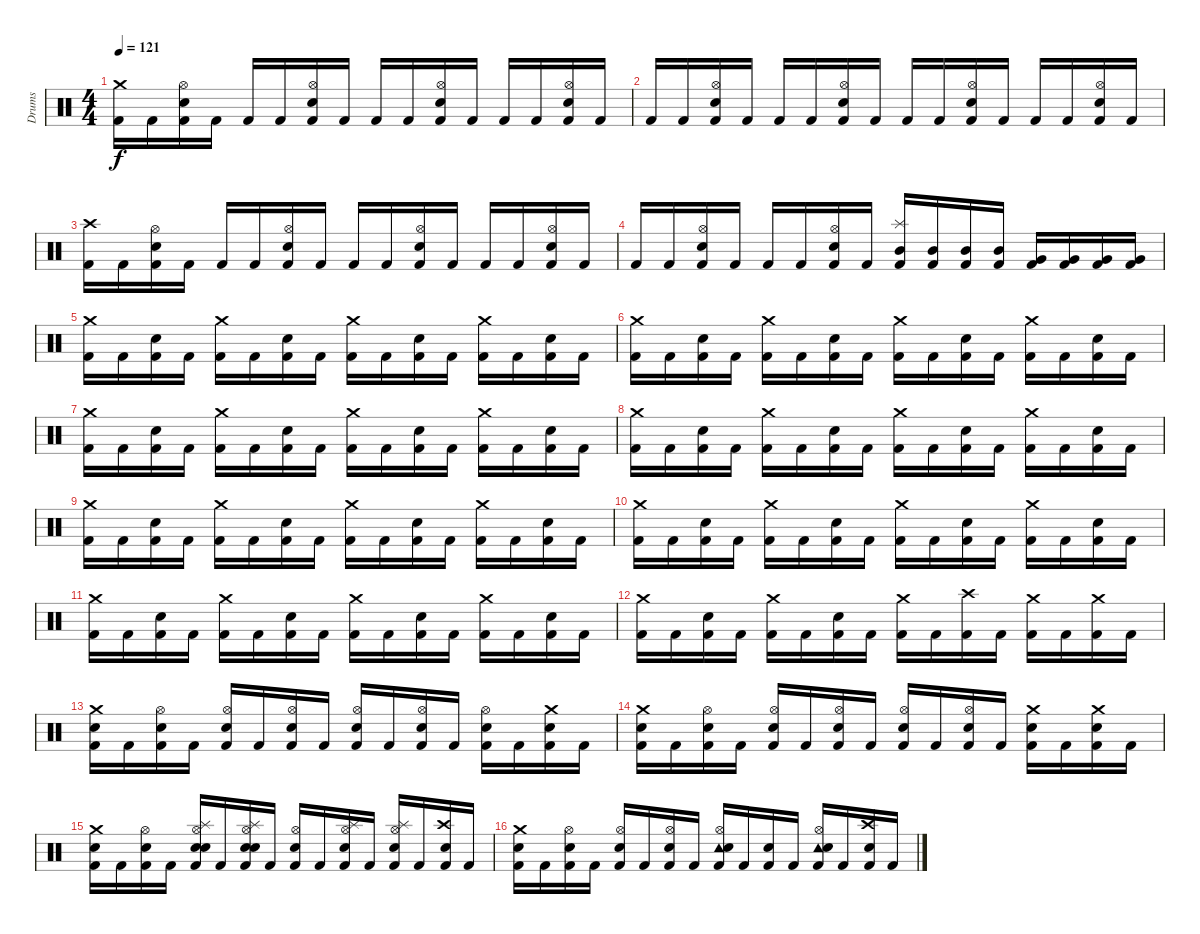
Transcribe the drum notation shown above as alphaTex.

\track ("Drums" "Drums") {instrument percussion}
\staff {score}
\articulation defaults
\ts (4 4)
\tempo 121
\clef neutral
\ks c
("Crash medium (hit)" "Kick (hit) 2").16{dy f} "Kick (hit) 2".16 ("Hi-Hat (open)" "Electric Snare (hit)" "Kick (hit) 2").16 "Kick (hit) 2".16 "Kick (hit) 2".16 "Kick (hit) 2".16 ("Hi-Hat (open)" "Electric Snare (hit)" "Kick (hit) 2").16 "Kick (hit) 2".16 "Kick (hit) 2".16 "Kick (hit) 2".16 ("Hi-Hat (open)" "Electric Snare (hit)" "Kick (hit) 2").16 "Kick (hit) 2".16 "Kick (hit) 2".16 "Kick (hit) 2".16 ("Hi-Hat (open)" "Electric Snare (hit)" "Kick (hit) 2").16 "Kick (hit) 2".16 |
"Kick (hit) 2".16 "Kick (hit) 2".16 ("Hi-Hat (open)" "Electric Snare (hit)" "Kick (hit) 2").16 "Kick (hit) 2".16 "Kick (hit) 2".16 "Kick (hit) 2".16 ("Hi-Hat (open)" "Electric Snare (hit)" "Kick (hit) 2").16 "Kick (hit) 2".16 "Kick (hit) 2".16 "Kick (hit) 2".16 ("Hi-Hat (open)" "Electric Snare (hit)" "Kick (hit) 2").16 "Kick (hit) 2".16 "Kick (hit) 2".16 "Kick (hit) 2".16 ("Hi-Hat (open)" "Electric Snare (hit)" "Kick (hit) 2").16 "Kick (hit) 2".16 |
("Crash high (hit)" "Kick (hit) 2").16 "Kick (hit) 2".16 ("Hi-Hat (open)" "Electric Snare (hit)" "Kick (hit) 2").16 "Kick (hit) 2".16 "Kick (hit) 2".16 "Kick (hit) 2".16 ("Hi-Hat (open)" "Electric Snare (hit)" "Kick (hit) 2").16 "Kick (hit) 2".16 "Kick (hit) 2".16 "Kick (hit) 2".16 ("Hi-Hat (open)" "Electric Snare (hit)" "Kick (hit) 2").16 "Kick (hit) 2".16 "Kick (hit) 2".16 "Kick (hit) 2".16 ("Hi-Hat (open)" "Electric Snare (hit)" "Kick (hit) 2").16 "Kick (hit) 2".16 |
"Kick (hit) 2".16 "Kick (hit) 2".16 ("Hi-Hat (open)" "Electric Snare (hit)" "Kick (hit) 2").16 "Kick (hit) 2".16 "Kick (hit) 2".16 "Kick (hit) 2".16 ("Hi-Hat (open)" "Electric Snare (hit)" "Kick (hit) 2").16 "Kick (hit) 2".16 ("Splash (hit)" "Mid Tom (hit)" "Kick (hit) 2").16 ("Mid Tom (hit)" "Kick (hit) 2").16 ("Mid Tom (hit)" "Kick (hit) 2").16 ("Mid Tom (hit)" "Kick (hit) 2").16 ("Very Low Tom (hit)" "Kick (hit) 2").16 ("Very Low Tom (hit)" "Kick (hit) 2").16 ("Very Low Tom (hit)" "Kick (hit) 2").16 ("Very Low Tom (hit)" "Kick (hit) 2").16 |
("Crash medium (hit)" "Kick (hit) 2").16 "Kick (hit) 2".16 ("Electric Snare (hit)" "Kick (hit) 2").16 "Kick (hit) 2".16 ("Crash medium (hit)" "Kick (hit) 2").16 "Kick (hit) 2".16 ("Electric Snare (hit)" "Kick (hit) 2").16 "Kick (hit) 2".16 ("Crash medium (hit)" "Kick (hit) 2").16 "Kick (hit) 2".16 ("Electric Snare (hit)" "Kick (hit) 2").16 "Kick (hit) 2".16 ("Crash medium (hit)" "Kick (hit) 2").16 "Kick (hit) 2".16 ("Electric Snare (hit)" "Kick (hit) 2").16 "Kick (hit) 2".16 |
("Crash medium (hit)" "Kick (hit) 2").16 "Kick (hit) 2".16 ("Electric Snare (hit)" "Kick (hit) 2").16 "Kick (hit) 2".16 ("Crash medium (hit)" "Kick (hit) 2").16 "Kick (hit) 2".16 ("Electric Snare (hit)" "Kick (hit) 2").16 "Kick (hit) 2".16 ("Crash medium (hit)" "Kick (hit) 2").16 "Kick (hit) 2".16 ("Electric Snare (hit)" "Kick (hit) 2").16 "Kick (hit) 2".16 ("Crash medium (hit)" "Kick (hit) 2").16 "Kick (hit) 2".16 ("Electric Snare (hit)" "Kick (hit) 2").16 "Kick (hit) 2".16 |
("Crash medium (hit)" "Kick (hit) 2").16 "Kick (hit) 2".16 ("Electric Snare (hit)" "Kick (hit) 2").16 "Kick (hit) 2".16 ("Crash medium (hit)" "Kick (hit) 2").16 "Kick (hit) 2".16 ("Electric Snare (hit)" "Kick (hit) 2").16 "Kick (hit) 2".16 ("Crash medium (hit)" "Kick (hit) 2").16 "Kick (hit) 2".16 ("Electric Snare (hit)" "Kick (hit) 2").16 "Kick (hit) 2".16 ("Crash medium (hit)" "Kick (hit) 2").16 "Kick (hit) 2".16 ("Electric Snare (hit)" "Kick (hit) 2").16 "Kick (hit) 2".16 |
("Crash medium (hit)" "Kick (hit) 2").16 "Kick (hit) 2".16 ("Electric Snare (hit)" "Kick (hit) 2").16 "Kick (hit) 2".16 ("Crash medium (hit)" "Kick (hit) 2").16 "Kick (hit) 2".16 ("Electric Snare (hit)" "Kick (hit) 2").16 "Kick (hit) 2".16 ("Crash medium (hit)" "Kick (hit) 2").16 "Kick (hit) 2".16 ("Electric Snare (hit)" "Kick (hit) 2").16 "Kick (hit) 2".16 ("Crash medium (hit)" "Kick (hit) 2").16 "Kick (hit) 2".16 ("Electric Snare (hit)" "Kick (hit) 2").16 "Kick (hit) 2".16 |
("Crash medium (hit)" "Kick (hit) 2").16 "Kick (hit) 2".16 ("Electric Snare (hit)" "Kick (hit) 2").16 "Kick (hit) 2".16 ("Crash medium (hit)" "Kick (hit) 2").16 "Kick (hit) 2".16 ("Electric Snare (hit)" "Kick (hit) 2").16 "Kick (hit) 2".16 ("Crash medium (hit)" "Kick (hit) 2").16 "Kick (hit) 2".16 ("Electric Snare (hit)" "Kick (hit) 2").16 "Kick (hit) 2".16 ("Crash medium (hit)" "Kick (hit) 2").16 "Kick (hit) 2".16 ("Electric Snare (hit)" "Kick (hit) 2").16 "Kick (hit) 2".16 |
("Crash medium (hit)" "Kick (hit) 2").16 "Kick (hit) 2".16 ("Electric Snare (hit)" "Kick (hit) 2").16 "Kick (hit) 2".16 ("Crash medium (hit)" "Kick (hit) 2").16 "Kick (hit) 2".16 ("Electric Snare (hit)" "Kick (hit) 2").16 "Kick (hit) 2".16 ("Crash medium (hit)" "Kick (hit) 2").16 "Kick (hit) 2".16 ("Electric Snare (hit)" "Kick (hit) 2").16 "Kick (hit) 2".16 ("Crash medium (hit)" "Kick (hit) 2").16 "Kick (hit) 2".16 ("Electric Snare (hit)" "Kick (hit) 2").16 "Kick (hit) 2".16 |
("Crash medium (hit)" "Kick (hit) 2").16 "Kick (hit) 2".16 ("Electric Snare (hit)" "Kick (hit) 2").16 "Kick (hit) 2".16 ("Crash medium (hit)" "Kick (hit) 2").16 "Kick (hit) 2".16 ("Electric Snare (hit)" "Kick (hit) 2").16 "Kick (hit) 2".16 ("Crash medium (hit)" "Kick (hit) 2").16 "Kick (hit) 2".16 ("Electric Snare (hit)" "Kick (hit) 2").16 "Kick (hit) 2".16 ("Crash medium (hit)" "Kick (hit) 2").16 "Kick (hit) 2".16 ("Electric Snare (hit)" "Kick (hit) 2").16 "Kick (hit) 2".16 |
("Crash medium (hit)" "Kick (hit) 2").16 "Kick (hit) 2".16 ("Electric Snare (hit)" "Kick (hit) 2").16 "Kick (hit) 2".16 ("Crash medium (hit)" "Kick (hit) 2").16 "Kick (hit) 2".16 ("Electric Snare (hit)" "Kick (hit) 2").16 "Kick (hit) 2".16 ("Crash medium (hit)" "Kick (hit) 2").16 "Kick (hit) 2".16 ("Crash high (hit)" "Kick (hit) 2").16 "Kick (hit) 2".16 ("Crash medium (hit)" "Kick (hit) 2").16 "Kick (hit) 2".16 ("Crash medium (hit)" "Kick (hit) 2").16 "Kick (hit) 2".16 |
("Crash medium (hit)" "Snare (hit) 2" "Kick (hit) 2").16 "Kick (hit) 2".16 ("Hi-Hat (open)" "Snare (hit) 2" "Kick (hit) 2").16 "Kick (hit) 2".16 ("Hi-Hat (open)" "Snare (hit) 2" "Kick (hit) 2").16 "Kick (hit) 2".16 ("Hi-Hat (open)" "Snare (hit) 2" "Kick (hit) 2").16 "Kick (hit) 2".16 ("Hi-Hat (open)" "Snare (hit) 2" "Kick (hit) 2").16 "Kick (hit) 2".16 ("Hi-Hat (open)" "Snare (hit) 2" "Kick (hit) 2").16 "Kick (hit) 2".16 ("Hi-Hat (open)" "Snare (hit) 2" "Kick (hit) 2").16 "Kick (hit) 2".16 ("Crash medium (hit)" "Snare (hit) 2" "Kick (hit) 2").16 "Kick (hit) 2".16 |
("Crash medium (hit)" "Snare (hit) 2" "Kick (hit) 2").16 "Kick (hit) 2".16 ("Hi-Hat (open)" "Snare (hit) 2" "Kick (hit) 2").16 "Kick (hit) 2".16 ("Hi-Hat (open)" "Snare (hit) 2" "Kick (hit) 2").16 "Kick (hit) 2".16 ("Hi-Hat (open)" "Snare (hit) 2" "Kick (hit) 2").16 "Kick (hit) 2".16 ("Hi-Hat (open)" "Snare (hit) 2" "Kick (hit) 2").16 "Kick (hit) 2".16 ("Hi-Hat (open)" "Snare (hit) 2" "Kick (hit) 2").16 "Kick (hit) 2".16 ("Crash medium (hit)" "Snare (hit) 2" "Kick (hit) 2").16 "Kick (hit) 2".16 ("Crash medium (hit)" "Snare (hit) 2" "Kick (hit) 2").16 "Kick (hit) 2".16 |
("Crash medium (hit)" "Snare (hit) 2" "Kick (hit) 2").16 "Kick (hit) 2".16 ("Hi-Hat (open)" "Snare (hit) 2" "Kick (hit) 2").16 "Kick (hit) 2".16 ("Hi-Hat (open)" "Splash (hit)" "Electric Snare (hit)" "Snare (hit) 2" "Kick (hit) 2").16 "Kick (hit) 2".16 ("Hi-Hat (open)" "Splash (hit)" "Electric Snare (hit)" "Snare (hit) 2" "Kick (hit) 2").16 "Kick (hit) 2".16 ("Hi-Hat (open)" "Snare (hit) 2" "Kick (hit) 2").16 "Kick (hit) 2".16 ("Hi-Hat (open)" "Splash (hit)" "Snare (hit) 2" "Kick (hit) 2").16 "Kick (hit) 2".16 ("Hi-Hat (open)" "Splash (hit)" "Snare (hit) 2" "Kick (hit) 2").16 "Kick (hit) 2".16 ("Crash high (hit)" "Snare (hit) 2" "Kick (hit) 2").16 "Kick (hit) 2".16 |
("Crash medium (hit)" "Snare (hit) 2" "Kick (hit) 2").16 "Kick (hit) 2".16 ("Hi-Hat (open)" "Snare (hit) 2" "Kick (hit) 2").16 "Kick (hit) 2".16 ("Hi-Hat (open)" "Snare (hit) 2" "Kick (hit) 2").16 "Kick (hit) 2".16 ("Hi-Hat (open)" "Snare (hit) 2" "Kick (hit) 2").16 "Kick (hit) 2".16 ("Hi-Hat (open)" "Tambourine (hit)" "Snare (hit) 2" "Kick (hit) 2").16 "Kick (hit) 2".16 ("Snare (hit) 2" "Kick (hit) 2").16 "Kick (hit) 2".16 ("Hi-Hat (open)" "Tambourine (hit)" "Snare (hit) 2" "Kick (hit) 2").16 "Kick (hit) 2".16 ("Crash high (hit)" "Snare (hit) 2" "Kick (hit) 2").16 "Kick (hit) 2".16
